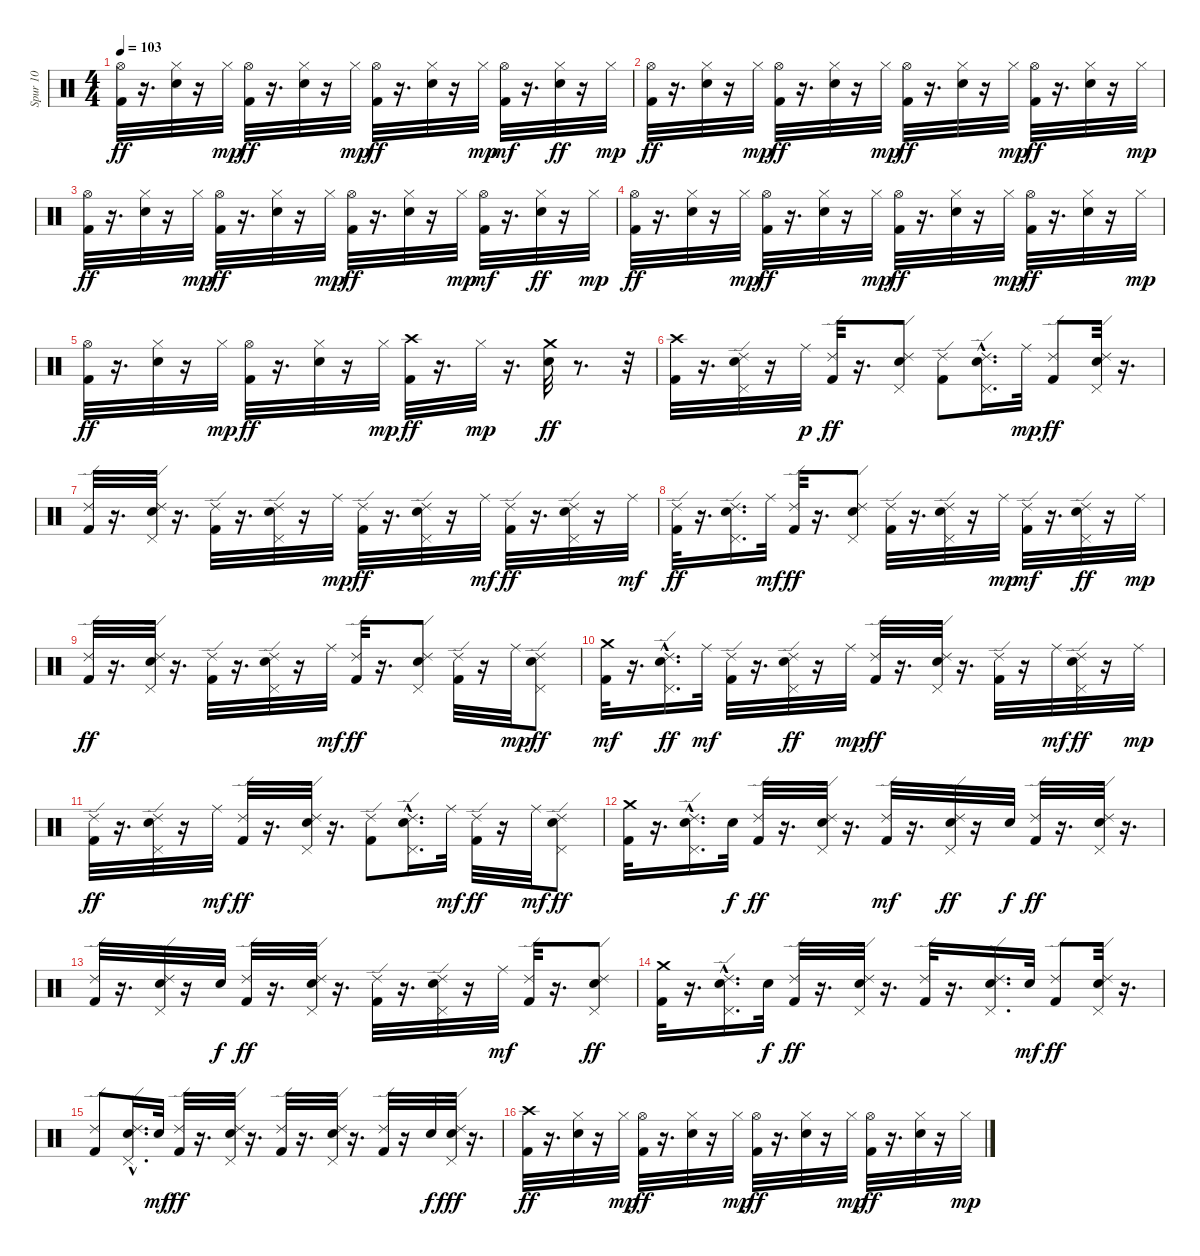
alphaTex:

\track ("Spur 10" "Spur 10") {instrument percussion}
\staff {score}
\articulation defaults
\ts (4 4)
\tempo 103
\clef neutral
\ks c
("Kick (hit) 2" "Hi-Hat (open)").32{dy ff} r.16{d} ("Hi-Hat (closed)" "Electric Snare (hit)").32 r.16 "Hi-Hat (closed)".32{dy mp} ("Kick (hit) 2" "Hi-Hat (open)").32{dy ff} r.16{d} ("Hi-Hat (closed)" "Electric Snare (hit)").32 r.16 "Hi-Hat (closed)".32{dy mp} ("Kick (hit) 2" "Hi-Hat (open)").32{dy ff} r.16{d} ("Hi-Hat (closed)" "Electric Snare (hit)").32 r.16 "Hi-Hat (closed)".32{dy mp} ("Kick (hit) 2" "Hi-Hat (open)").32{dy mf} r.16{d} ("Hi-Hat (closed)" "Electric Snare (hit)").32{dy ff} r.16 "Hi-Hat (closed)".32{dy mp} |
("Kick (hit) 2" "Hi-Hat (open)").32{dy ff} r.16{d} ("Hi-Hat (closed)" "Electric Snare (hit)").32 r.16 "Hi-Hat (closed)".32{dy mp} ("Kick (hit) 2" "Hi-Hat (open)").32{dy ff} r.16{d} ("Hi-Hat (closed)" "Electric Snare (hit)").32 r.16 "Hi-Hat (closed)".32{dy mp} ("Kick (hit) 2" "Hi-Hat (open)").32{dy ff} r.16{d} ("Hi-Hat (closed)" "Electric Snare (hit)").32 r.16 "Hi-Hat (closed)".32{dy mp} ("Kick (hit) 2" "Hi-Hat (open)").32{dy ff} r.16{d} ("Hi-Hat (closed)" "Electric Snare (hit)").32 r.16 "Hi-Hat (closed)".32{dy mp} |
("Kick (hit) 2" "Hi-Hat (open)").32{dy ff} r.16{d} ("Hi-Hat (closed)" "Electric Snare (hit)").32 r.16 "Hi-Hat (closed)".32{dy mp} ("Kick (hit) 2" "Hi-Hat (open)").32{dy ff} r.16{d} ("Hi-Hat (closed)" "Electric Snare (hit)").32 r.16 "Hi-Hat (closed)".32{dy mp} ("Kick (hit) 2" "Hi-Hat (open)").32{dy ff} r.16{d} ("Hi-Hat (closed)" "Electric Snare (hit)").32 r.16 "Hi-Hat (closed)".32{dy mp} ("Kick (hit) 2" "Hi-Hat (open)").32{dy mf} r.16{d} ("Hi-Hat (closed)" "Electric Snare (hit)").32{dy ff} r.16 "Hi-Hat (closed)".32{dy mp} |
("Kick (hit) 2" "Hi-Hat (open)").32{dy ff} r.16{d} ("Hi-Hat (closed)" "Electric Snare (hit)").32 r.16 "Hi-Hat (closed)".32{dy mp} ("Kick (hit) 2" "Hi-Hat (open)").32{dy ff} r.16{d} ("Hi-Hat (closed)" "Electric Snare (hit)").32 r.16 "Hi-Hat (closed)".32{dy mp} ("Kick (hit) 2" "Hi-Hat (open)").32{dy ff} r.16{d} ("Hi-Hat (closed)" "Electric Snare (hit)").32 r.16 "Hi-Hat (closed)".32{dy mp} ("Kick (hit) 2" "Hi-Hat (open)").32{dy ff} r.16{d} ("Hi-Hat (closed)" "Electric Snare (hit)").32 r.16 "Hi-Hat (closed)".32{dy mp} |
("Kick (hit) 2" "Hi-Hat (open)").32{dy ff} r.16{d} ("Hi-Hat (closed)" "Electric Snare (hit)").32 r.16 "Hi-Hat (closed)".32{dy mp} ("Kick (hit) 2" "Hi-Hat (open)").32{dy ff} r.16{d} ("Hi-Hat (closed)" "Electric Snare (hit)").32 r.16 "Hi-Hat (closed)".32{dy mp} ("Kick (hit) 2" "Crash high (hit)").32{dy ff} r.16{d} "Hi-Hat (closed)".32{dy mp} r.16{d} ("Crash medium (hit)" "Electric Snare (hit)").32{dy ff} r.8{d} r.32 |
("Kick (hit) 2" "Crash high (hit)").32 r.16{d} ("Pedal Hi-Hat (hit)" "Ride (edge) 2" "Electric Snare (hit)").32 r.16 "Ride (middle)".32{dy p} ("Kick (hit) 2" "Ride (edge) 2").32{dy ff} r.16{d} ("Pedal Hi-Hat (hit)" "Ride (edge) 2" "Electric Snare (hit)").8 ("Kick (hit) 2" "Ride (edge) 2").8 ("Pedal Hi-Hat (hit)"{hac} "Ride (edge) 2" "Electric Snare (hit)").16{d} "Ride (middle)".32{dy mp} ("Kick (hit) 2" "Ride (edge) 2").8{dy ff} ("Pedal Hi-Hat (hit)" "Ride (edge) 2" "Electric Snare (hit)").32 r.16{d} |
("Kick (hit) 2" "Ride (edge) 2").32 r.16{d} ("Pedal Hi-Hat (hit)" "Ride (edge) 2" "Electric Snare (hit)").32 r.16{d} ("Kick (hit) 2" "Ride (edge) 2").32 r.16{d} ("Pedal Hi-Hat (hit)" "Ride (edge) 2" "Electric Snare (hit)").32 r.16 "Ride (middle)".32{dy mp} ("Kick (hit) 2" "Ride (edge) 2").32{dy ff} r.16{d} ("Pedal Hi-Hat (hit)" "Ride (edge) 2" "Electric Snare (hit)").32 r.16 "Ride (middle)".32{dy mf} ("Kick (hit) 2" "Ride (edge) 2").32{dy ff} r.16{d} ("Pedal Hi-Hat (hit)" "Ride (edge) 2" "Electric Snare (hit)").32 r.16 "Ride (middle)".32{dy mf} |
("Kick (hit) 2" "Ride (edge) 2").32{dy ff} r.16{d} ("Pedal Hi-Hat (hit)" "Ride (edge) 2" "Electric Snare (hit)").16{d} "Ride (middle)".32{dy mf} ("Kick (hit) 2" "Ride (edge) 2").32{dy ff} r.16{d} ("Pedal Hi-Hat (hit)" "Ride (edge) 2" "Electric Snare (hit)").8 ("Kick (hit) 2" "Ride (edge) 2").32 r.16{d} ("Pedal Hi-Hat (hit)" "Ride (edge) 2" "Electric Snare (hit)").32 r.16 "Ride (middle)".32{dy mp} ("Kick (hit) 2" "Ride (edge) 2").32{dy mf} r.16{d} ("Pedal Hi-Hat (hit)" "Ride (edge) 2" "Electric Snare (hit)").32{dy ff} r.16 "Ride (middle)".32{dy mp} |
("Kick (hit) 2" "Ride (edge) 2").32{dy ff} r.16{d} ("Pedal Hi-Hat (hit)" "Ride (edge) 2" "Electric Snare (hit)").32 r.16{d} ("Kick (hit) 2" "Ride (edge) 2").32 r.16{d} ("Pedal Hi-Hat (hit)" "Ride (edge) 2" "Electric Snare (hit)").32 r.16 "Ride (middle)".32{dy mf} ("Kick (hit) 2" "Ride (edge) 2").32{dy ff} r.16{d} ("Pedal Hi-Hat (hit)" "Ride (edge) 2" "Electric Snare (hit)").8 ("Kick (hit) 2" "Ride (edge) 2").32 r.16 "Ride (middle)".32{dy mp} ("Pedal Hi-Hat (hit)" "Ride (edge) 2" "Electric Snare (hit)").8{dy ff} |
("Kick (hit) 2" "Crash medium (hit)").32{dy mf} r.16{d} ("Pedal Hi-Hat (hit)"{hac} "Ride (edge) 2" "Electric Snare (hit)").16{d dy ff} "Ride (middle)".32{dy mf} ("Kick (hit) 2" "Ride (edge) 2").32 r.16{d} ("Pedal Hi-Hat (hit)" "Ride (edge) 2" "Electric Snare (hit)").32{dy ff} r.16 "Ride (middle)".32{dy mp} ("Kick (hit) 2" "Ride (edge) 2").32{dy ff} r.16{d} ("Pedal Hi-Hat (hit)" "Ride (edge) 2" "Electric Snare (hit)").32 r.16{d} ("Kick (hit) 2" "Ride (edge) 2").32 r.16 "Ride (middle)".32{dy mf} ("Pedal Hi-Hat (hit)" "Ride (edge) 2" "Electric Snare (hit)").32{dy ff} r.16 "Ride (middle)".32{dy mp} |
("Kick (hit) 2" "Ride (edge) 2").32{dy ff} r.16{d} ("Pedal Hi-Hat (hit)" "Ride (edge) 2" "Electric Snare (hit)").32 r.16 "Ride (middle)".32{dy mf} ("Kick (hit) 2" "Ride (edge) 2").32{dy ff} r.16{d} ("Pedal Hi-Hat (hit)" "Ride (edge) 2" "Electric Snare (hit)").32 r.16{d} ("Kick (hit) 2" "Ride (edge) 2").8 ("Pedal Hi-Hat (hit)" "Ride (edge) 2"{hac} "Electric Snare (hit)").16{d} "Ride (middle)".32{dy mf} ("Kick (hit) 2" "Ride (edge) 2").32{dy ff} r.16 "Ride (middle)".32{dy mf} ("Pedal Hi-Hat (hit)" "Ride (edge) 2" "Electric Snare (hit)").8{dy ff} |
("Kick (hit) 2" "Crash medium (hit)").32 r.16{d} ("Pedal Hi-Hat (hit)"{hac} "Ride (edge) 2" "Electric Snare (hit)").16{d} "Electric Snare (hit)".32{dy f} ("Kick (hit) 2" "Ride (edge) 2").32{dy ff} r.16{d} ("Pedal Hi-Hat (hit)" "Ride (edge) 2" "Electric Snare (hit)").32 r.16{d} ("Kick (hit) 2" "Ride (edge) 2").32{dy mf} r.16{d} ("Pedal Hi-Hat (hit)" "Ride (edge) 2" "Electric Snare (hit)").32{dy ff} r.16 "Electric Snare (hit)".32{dy f} ("Kick (hit) 2" "Ride (edge) 2").32{dy ff} r.16{d} ("Pedal Hi-Hat (hit)" "Ride (edge) 2" "Electric Snare (hit)").32 r.16{d} |
("Kick (hit) 2" "Ride (edge) 2").32 r.16{d} ("Pedal Hi-Hat (hit)" "Ride (edge) 2" "Electric Snare (hit)").32 r.16 "Electric Snare (hit)".32{dy f} ("Kick (hit) 2" "Ride (edge) 2").32{dy ff} r.16{d} ("Pedal Hi-Hat (hit)" "Ride (edge) 2" "Electric Snare (hit)").32 r.16{d} ("Kick (hit) 2" "Ride (edge) 2").32 r.16{d} ("Pedal Hi-Hat (hit)" "Ride (edge) 2" "Electric Snare (hit)").32 r.16 "Ride (middle)".32{dy mf} ("Kick (hit) 2" "Ride (edge) 2").32 r.16{d} ("Pedal Hi-Hat (hit)" "Ride (edge) 2" "Electric Snare (hit)").8{dy ff} |
("Kick (hit) 2" "Crash medium (hit)").32 r.16{d} ("Pedal Hi-Hat (hit)"{hac} "Ride (edge) 2" "Electric Snare (hit)").16{d} "Electric Snare (hit)".32{dy f} ("Kick (hit) 2" "Ride (edge) 2").32{dy ff} r.16{d} ("Pedal Hi-Hat (hit)" "Ride (edge) 2" "Electric Snare (hit)").32 r.16{d} ("Kick (hit) 2" "Ride (edge) 2").32 r.16{d} ("Pedal Hi-Hat (hit)" "Ride (edge) 2" "Electric Snare (hit)").16{d} "Electric Snare (hit)".32{dy mf} ("Kick (hit) 2" "Ride (edge) 2").8{dy ff} ("Pedal Hi-Hat (hit)" "Ride (edge) 2" "Electric Snare (hit)").32 r.16{d} |
("Kick (hit) 2" "Ride (edge) 2").8 ("Pedal Hi-Hat (hit)" "Ride (edge) 2"{hac} "Electric Snare (hit)").16{d} "Electric Snare (hit)".32{dy mf} ("Kick (hit) 2" "Ride (edge) 2").32{dy ff} r.16{d} ("Pedal Hi-Hat (hit)" "Ride (edge) 2" "Electric Snare (hit)").32 r.16{d} ("Kick (hit) 2" "Ride (edge) 2").32 r.16{d} ("Pedal Hi-Hat (hit)" "Ride (edge) 2" "Electric Snare (hit)").32 r.16{d} ("Kick (hit) 2" "Ride (edge) 2").32 r.16 "Electric Snare (hit)".32{dy f} ("Pedal Hi-Hat (hit)" "Ride (edge) 2" "Electric Snare (hit)").32{dy fff} r.16{d} |
("Kick (hit) 2" "Crash high (hit)").32{dy ff} r.16{d} ("Hi-Hat (closed)" "Electric Snare (hit)").32 r.16 "Hi-Hat (closed)".32{dy mp} ("Kick (hit) 2" "Hi-Hat (open)").32{dy ff} r.16{d} ("Hi-Hat (closed)" "Electric Snare (hit)").32 r.16 "Hi-Hat (closed)".32{dy mp} ("Kick (hit) 2" "Hi-Hat (open)").32{dy ff} r.16{d} ("Hi-Hat (closed)" "Electric Snare (hit)").32 r.16 "Hi-Hat (closed)".32{dy mp} ("Kick (hit) 2" "Hi-Hat (open)").32{dy ff} r.16{d} ("Hi-Hat (closed)" "Electric Snare (hit)").32 r.16 "Hi-Hat (closed)".32{dy mp}
